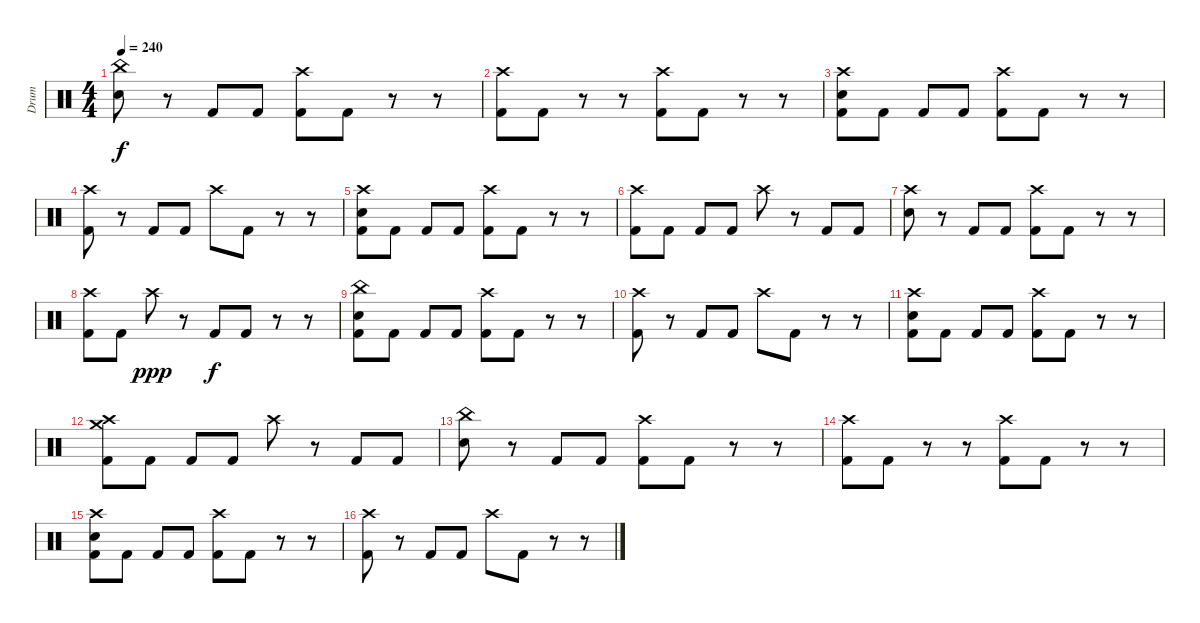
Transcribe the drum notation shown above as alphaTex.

\track ("Drum" "Drum") {instrument percussion}
\staff {score}
\articulation defaults
\ts (4 4)
\tempo 240
\clef neutral
\ks c
("China (hit)" "Electric Snare (hit)").8{dy f} r.8 "Kick (hit) 2".8 "Kick (hit) 2".8 ("Crash high (hit)" "Kick (hit) 2").8 "Kick (hit) 2".8 r.8 r.8 |
("Crash high (hit)" "Kick (hit) 2").8 "Kick (hit) 2".8 r.8 r.8 ("Crash high (hit)" "Kick (hit) 2").8 "Kick (hit) 2".8 r.8 r.8 |
("Crash high (hit)" "Electric Snare (hit)" "Kick (hit) 2").8 "Kick (hit) 2".8 "Kick (hit) 2".8 "Kick (hit) 2".8 ("Crash high (hit)" "Kick (hit) 2").8 "Kick (hit) 2".8 r.8 r.8 |
("Crash high (hit)" "Kick (hit) 2").8 r.8 "Kick (hit) 2".8 "Kick (hit) 2".8 "Crash high (hit)".8 "Kick (hit) 2".8 r.8 r.8 |
("Crash high (hit)" "Electric Snare (hit)" "Kick (hit) 2").8 "Kick (hit) 2".8 "Kick (hit) 2".8 "Kick (hit) 2".8 ("Crash high (hit)" "Kick (hit) 2").8 "Kick (hit) 2".8 r.8 r.8 |
("Crash high (hit)" "Kick (hit) 2").8 "Kick (hit) 2".8 "Kick (hit) 2".8 "Kick (hit) 2".8 "Crash high (hit)".8 r.8 "Kick (hit) 2".8 "Kick (hit) 2".8 |
("Crash high (hit)" "Electric Snare (hit)").8 r.8 "Kick (hit) 2".8 "Kick (hit) 2".8 ("Crash high (hit)" "Kick (hit) 2").8 "Kick (hit) 2".8 r.8 r.8 |
("Crash high (hit)" "Kick (hit) 2").8 "Kick (hit) 2".8 "Crash high (hit)".8{dy ppp} r.8 "Kick (hit) 2".8{dy f} "Kick (hit) 2".8 r.8 r.8 |
("China (hit)" "Electric Snare (hit)" "Kick (hit) 2").8 "Kick (hit) 2".8 "Kick (hit) 2".8 "Kick (hit) 2".8 ("Crash high (hit)" "Kick (hit) 2").8 "Kick (hit) 2".8 r.8 r.8 |
("Crash high (hit)" "Kick (hit) 2").8 r.8 "Kick (hit) 2".8 "Kick (hit) 2".8 "Crash high (hit)".8 "Kick (hit) 2".8 r.8 r.8 |
("Crash high (hit)" "Electric Snare (hit)" "Kick (hit) 2").8 "Kick (hit) 2".8 "Kick (hit) 2".8 "Kick (hit) 2".8 ("Crash high (hit)" "Kick (hit) 2").8 "Kick (hit) 2".8 r.8 r.8 |
("Crash medium (hit)" "Crash high (hit)" "Kick (hit) 2").8 "Kick (hit) 2".8 "Kick (hit) 2".8 "Kick (hit) 2".8 "Crash high (hit)".8 r.8 "Kick (hit) 2".8 "Kick (hit) 2".8 |
("China (hit)" "Electric Snare (hit)").8 r.8 "Kick (hit) 2".8 "Kick (hit) 2".8 ("Crash high (hit)" "Kick (hit) 2").8 "Kick (hit) 2".8 r.8 r.8 |
("Crash high (hit)" "Kick (hit) 2").8 "Kick (hit) 2".8 r.8 r.8 ("Crash high (hit)" "Kick (hit) 2").8 "Kick (hit) 2".8 r.8 r.8 |
("Crash high (hit)" "Electric Snare (hit)" "Kick (hit) 2").8 "Kick (hit) 2".8 "Kick (hit) 2".8 "Kick (hit) 2".8 ("Crash high (hit)" "Kick (hit) 2").8 "Kick (hit) 2".8 r.8 r.8 |
("Crash high (hit)" "Kick (hit) 2").8 r.8 "Kick (hit) 2".8 "Kick (hit) 2".8 "Crash high (hit)".8 "Kick (hit) 2".8 r.8 r.8
